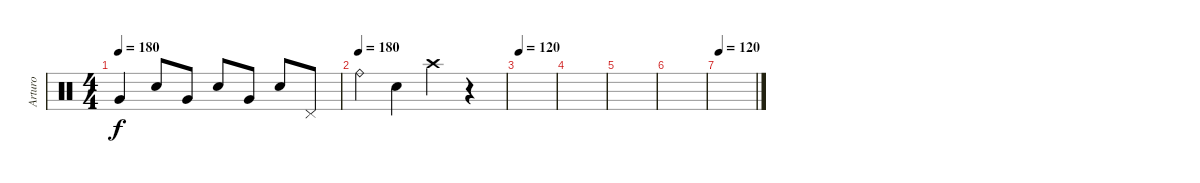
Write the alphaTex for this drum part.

\track ("Arturo" "Arturo") {instrument percussion}
\staff {score}
\articulation defaults
\ts (4 4)
\tempo 180
\clef neutral
\ks c "Very Low Tom (hit)".4{dy f} "Electric Snare (hit)".8 "Very Low Tom (hit)".8 "Electric Snare (hit)".8 "Very Low Tom (hit)".8 "Electric Snare (hit)".8 "Pedal Hi-Hat (hit)".8
|
\tempo (180)
"Ride (bell)".4 "Electric Snare (hit)".4 "Crash high (hit)".4 r.4 |
\tempo 120
|
|
|
|
\tempo 120
